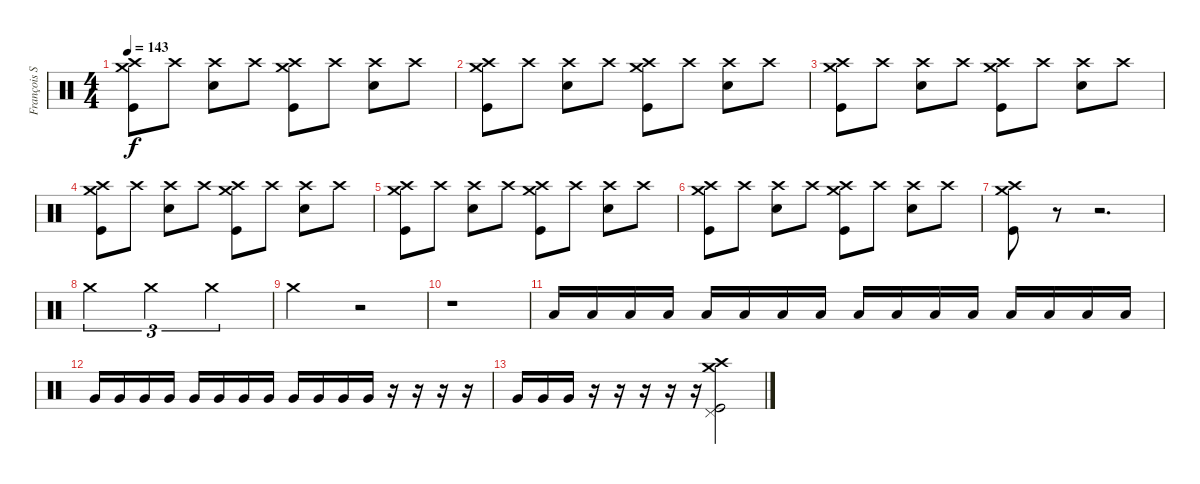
\track ("François Soulier" "François S") {instrument percussion}
\staff {score}
\articulation defaults
\ts (4 4)
\tempo 143
\clef neutral
\ks c
("Crash high (hit)" "Crash medium (hit)" "Kick (hit)").8{dy f} "Crash high (hit)".8 ("Crash high (hit)" "Snare (hit) 2").8 "Crash high (hit)".8 ("Crash high (hit)" "Crash medium (hit)" "Kick (hit)").8 "Crash high (hit)".8 ("Crash high (hit)" "Snare (hit) 2").8 "Crash high (hit)".8 |
("Crash high (hit)" "Crash medium (hit)" "Kick (hit)").8 "Crash high (hit)".8 ("Crash high (hit)" "Snare (hit) 2").8 "Crash high (hit)".8 ("Crash high (hit)" "Crash medium (hit)" "Kick (hit)").8 "Crash high (hit)".8 ("Crash high (hit)" "Snare (hit) 2").8 "Crash high (hit)".8 |
("Crash high (hit)" "Crash medium (hit)" "Kick (hit)").8 "Crash high (hit)".8 ("Crash high (hit)" "Snare (hit) 2").8 "Crash high (hit)".8 ("Crash high (hit)" "Crash medium (hit)" "Kick (hit)").8 "Crash high (hit)".8 ("Crash high (hit)" "Snare (hit) 2").8 "Crash high (hit)".8 |
("Crash high (hit)" "Crash medium (hit)" "Kick (hit)").8 "Crash high (hit)".8 ("Crash high (hit)" "Snare (hit) 2").8 "Crash high (hit)".8 ("Crash high (hit)" "Crash medium (hit)" "Kick (hit)").8 "Crash high (hit)".8 ("Crash high (hit)" "Snare (hit) 2").8 "Crash high (hit)".8 |
("Crash high (hit)" "Crash medium (hit)" "Kick (hit)").8 "Crash high (hit)".8 ("Crash high (hit)" "Snare (hit) 2").8 "Crash high (hit)".8 ("Crash high (hit)" "Crash medium (hit)" "Kick (hit)").8 "Crash high (hit)".8 ("Crash high (hit)" "Snare (hit) 2").8 "Crash high (hit)".8 |
("Crash high (hit)" "Crash medium (hit)" "Kick (hit)").8 "Crash high (hit)".8 ("Crash high (hit)" "Snare (hit) 2").8 "Crash high (hit)".8 ("Crash high (hit)" "Crash medium (hit)" "Kick (hit)").8 "Crash high (hit)".8 ("Crash high (hit)" "Snare (hit) 2").8 "Crash high (hit)".8 |
("Crash high (hit)" "Crash medium (hit)" "Kick (hit)").8 r.8 r.2{d} |
"Crash medium (hit)".2{tu (3 2)} "Crash medium (hit)".2{tu (3 2)} "Crash medium (hit)".2{tu (3 2)} |
"Crash medium (hit)".2 r.2 |
r.1 |
"Low Tom (hit)".16 "Low Tom (hit)".16 "Low Tom (hit)".16 "Low Tom (hit)".16 "Low Tom (hit)".16 "Low Tom (hit)".16 "Low Tom (hit)".16 "Low Tom (hit)".16 "Low Tom (hit)".16 "Low Tom (hit)".16 "Low Tom (hit)".16 "Low Tom (hit)".16 "Low Tom (hit)".16 "Low Tom (hit)".16 "Low Tom (hit)".16 "Low Tom (hit)".16 |
"Very Low Tom (hit)".16 "Very Low Tom (hit)".16 "Very Low Tom (hit)".16 "Very Low Tom (hit)".16 "Very Low Tom (hit)".16 "Very Low Tom (hit)".16 "Very Low Tom (hit)".16 "Very Low Tom (hit)".16 "Very Low Tom (hit)".16 "Very Low Tom (hit)".16 "Very Low Tom (hit)".16 "Very Low Tom (hit)".16 r.16 r.16 r.16 r.16 |
"Very Low Tom (hit)".16 "Very Low Tom (hit)".16 "Very Low Tom (hit)".16 r.16 r.16 r.16 r.16 r.16 ("Crash high (hit)" "Crash medium (hit)" "Pedal Hi-Hat (hit)" "Kick (hit)").2
